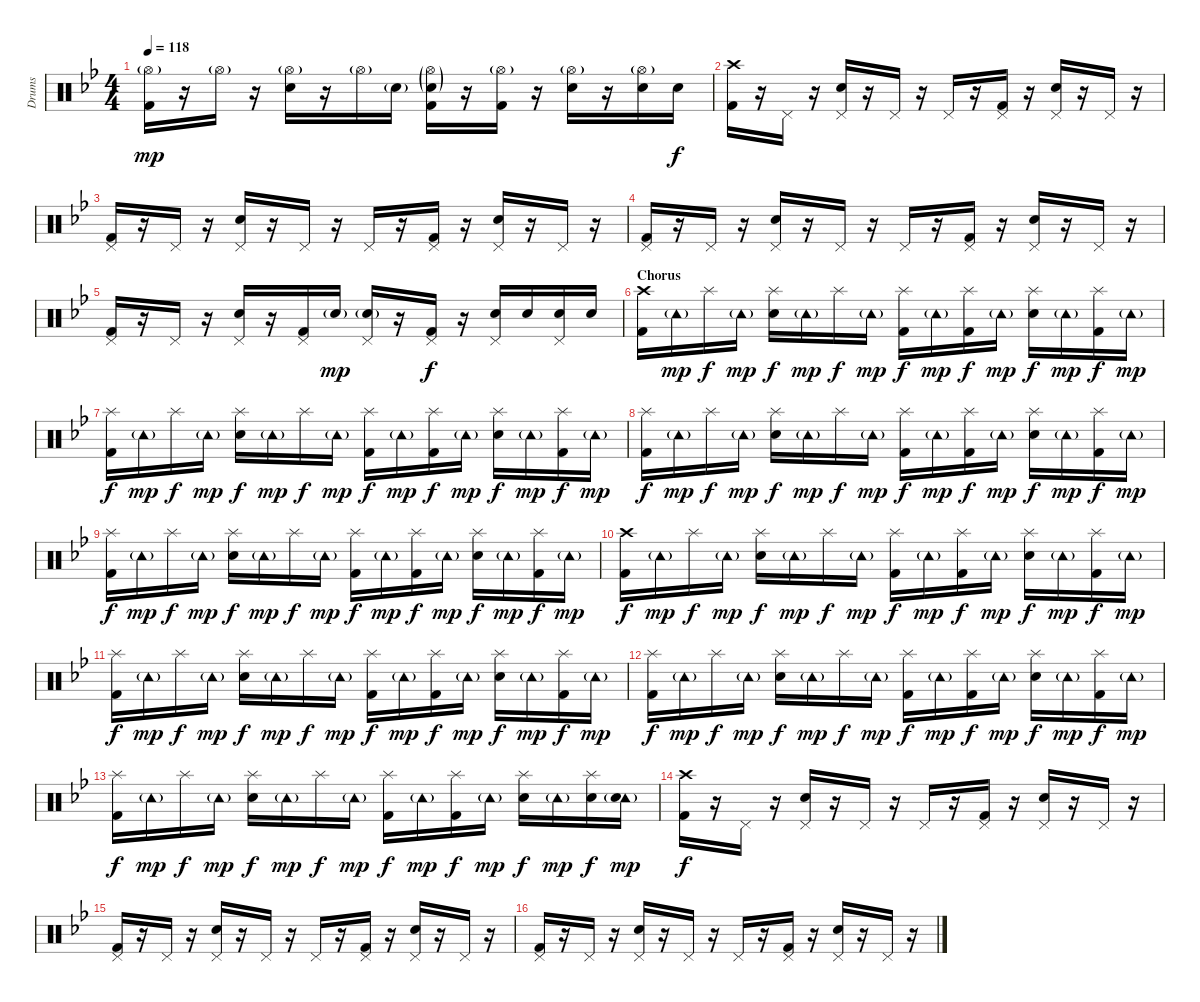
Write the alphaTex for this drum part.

\track ("Drums" "Drums") {instrument percussion}
\staff {score}
\articulation defaults
\ts (4 4)
\tempo 118
\clef neutral
\ks bb
("Hi-Hat (open)"{g} "Kick (hit) 2").16{dy mp} r.16 "Hi-Hat (open)"{g}.16 r.16 ("Hi-Hat (open)"{g} "Electric Snare (hit)").16 r.16 "Hi-Hat (open)"{g}.16 "Electric Snare (hit)"{g}.16 ("Hi-Hat (open)"{g} "Electric Snare (hit)"{g} "Kick (hit) 2").16 r.16 ("Hi-Hat (open)"{g} "Kick (hit) 2").16 r.16 ("Hi-Hat (open)"{g} "Electric Snare (hit)").16 r.16 ("Hi-Hat (open)"{g} "Electric Snare (hit)").16 "Electric Snare (hit)".16{dy f} |
("Crash high (hit)" "Kick (hit) 2").16 r.16 "Pedal Hi-Hat (hit)".16 r.16 ("Pedal Hi-Hat (hit)" "Electric Snare (hit)").16 r.16 "Pedal Hi-Hat (hit)".16 r.16 "Pedal Hi-Hat (hit)".16 r.16 ("Pedal Hi-Hat (hit)" "Kick (hit) 2").16 r.16 ("Pedal Hi-Hat (hit)" "Electric Snare (hit)").16 r.16 "Pedal Hi-Hat (hit)".16 r.16 |
("Pedal Hi-Hat (hit)" "Kick (hit) 2").16 r.16 "Pedal Hi-Hat (hit)".16 r.16 ("Pedal Hi-Hat (hit)" "Electric Snare (hit)").16 r.16 "Pedal Hi-Hat (hit)".16 r.16 "Pedal Hi-Hat (hit)".16 r.16 ("Pedal Hi-Hat (hit)" "Kick (hit) 2").16 r.16 ("Pedal Hi-Hat (hit)" "Electric Snare (hit)").16 r.16 "Pedal Hi-Hat (hit)".16 r.16 |
("Pedal Hi-Hat (hit)" "Kick (hit) 2").16 r.16 "Pedal Hi-Hat (hit)".16 r.16 ("Pedal Hi-Hat (hit)" "Electric Snare (hit)").16 r.16 "Pedal Hi-Hat (hit)".16 r.16 "Pedal Hi-Hat (hit)".16 r.16 ("Pedal Hi-Hat (hit)" "Kick (hit) 2").16 r.16 ("Pedal Hi-Hat (hit)" "Electric Snare (hit)").16 r.16 "Pedal Hi-Hat (hit)".16 r.16 |
("Pedal Hi-Hat (hit)" "Kick (hit) 2").16 r.16 "Pedal Hi-Hat (hit)".16 r.16 ("Pedal Hi-Hat (hit)" "Electric Snare (hit)").16 r.16 ("Pedal Hi-Hat (hit)" "Kick (hit) 2").16 "Electric Snare (hit)"{g}.16{dy mp} ("Pedal Hi-Hat (hit)" "Electric Snare (hit)"{g}).16 r.16 ("Pedal Hi-Hat (hit)" "Kick (hit) 2").16{dy f} r.16 ("Pedal Hi-Hat (hit)" "Electric Snare (hit)").16 "Electric Snare (hit)".16 ("Pedal Hi-Hat (hit)" "Electric Snare (hit)").16 "Electric Snare (hit)".16 |
\section ("" "Chorus")
("Crash high (hit)" "Kick (hit) 2").16 "Tambourine (hit)"{g}.16{dy mp} "Splash (hit)".16{dy f} "Tambourine (hit)"{g}.16{dy mp} ("Splash (hit)" "Electric Snare (hit)").16{dy f} "Tambourine (hit)"{g}.16{dy mp} "Splash (hit)".16{dy f} "Tambourine (hit)"{g}.16{dy mp} ("Splash (hit)" "Kick (hit) 2").16{dy f} "Tambourine (hit)"{g}.16{dy mp} ("Splash (hit)" "Kick (hit) 2").16{dy f} "Tambourine (hit)"{g}.16{dy mp} ("Splash (hit)" "Electric Snare (hit)").16{dy f} "Tambourine (hit)"{g}.16{dy mp} ("Splash (hit)" "Kick (hit) 2").16{dy f} "Tambourine (hit)"{g}.16{dy mp} |
("Splash (hit)" "Kick (hit) 2").16{dy f} "Tambourine (hit)"{g}.16{dy mp} "Splash (hit)".16{dy f} "Tambourine (hit)"{g}.16{dy mp} ("Splash (hit)" "Electric Snare (hit)").16{dy f} "Tambourine (hit)"{g}.16{dy mp} "Splash (hit)".16{dy f} "Tambourine (hit)"{g}.16{dy mp} ("Splash (hit)" "Kick (hit) 2").16{dy f} "Tambourine (hit)"{g}.16{dy mp} ("Splash (hit)" "Kick (hit) 2").16{dy f} "Tambourine (hit)"{g}.16{dy mp} ("Splash (hit)" "Electric Snare (hit)").16{dy f} "Tambourine (hit)"{g}.16{dy mp} ("Splash (hit)" "Kick (hit) 2").16{dy f} "Tambourine (hit)"{g}.16{dy mp} |
("Splash (hit)" "Kick (hit) 2").16{dy f} "Tambourine (hit)"{g}.16{dy mp} "Splash (hit)".16{dy f} "Tambourine (hit)"{g}.16{dy mp} ("Splash (hit)" "Electric Snare (hit)").16{dy f} "Tambourine (hit)"{g}.16{dy mp} "Splash (hit)".16{dy f} "Tambourine (hit)"{g}.16{dy mp} ("Splash (hit)" "Kick (hit) 2").16{dy f} "Tambourine (hit)"{g}.16{dy mp} ("Splash (hit)" "Kick (hit) 2").16{dy f} "Tambourine (hit)"{g}.16{dy mp} ("Splash (hit)" "Electric Snare (hit)").16{dy f} "Tambourine (hit)"{g}.16{dy mp} ("Splash (hit)" "Kick (hit) 2").16{dy f} "Tambourine (hit)"{g}.16{dy mp} |
("Splash (hit)" "Kick (hit) 2").16{dy f} "Tambourine (hit)"{g}.16{dy mp} "Splash (hit)".16{dy f} "Tambourine (hit)"{g}.16{dy mp} ("Splash (hit)" "Electric Snare (hit)").16{dy f} "Tambourine (hit)"{g}.16{dy mp} "Splash (hit)".16{dy f} "Tambourine (hit)"{g}.16{dy mp} ("Splash (hit)" "Kick (hit) 2").16{dy f} "Tambourine (hit)"{g}.16{dy mp} ("Splash (hit)" "Kick (hit) 2").16{dy f} "Tambourine (hit)"{g}.16{dy mp} ("Splash (hit)" "Electric Snare (hit)").16{dy f} "Tambourine (hit)"{g}.16{dy mp} ("Splash (hit)" "Kick (hit) 2").16{dy f} "Tambourine (hit)"{g}.16{dy mp} |
("Crash high (hit)" "Kick (hit) 2").16{dy f} "Tambourine (hit)"{g}.16{dy mp} "Splash (hit)".16{dy f} "Tambourine (hit)"{g}.16{dy mp} ("Splash (hit)" "Electric Snare (hit)").16{dy f} "Tambourine (hit)"{g}.16{dy mp} "Splash (hit)".16{dy f} "Tambourine (hit)"{g}.16{dy mp} ("Splash (hit)" "Kick (hit) 2").16{dy f} "Tambourine (hit)"{g}.16{dy mp} ("Splash (hit)" "Kick (hit) 2").16{dy f} "Tambourine (hit)"{g}.16{dy mp} ("Splash (hit)" "Electric Snare (hit)").16{dy f} "Tambourine (hit)"{g}.16{dy mp} ("Splash (hit)" "Kick (hit) 2").16{dy f} "Tambourine (hit)"{g}.16{dy mp} |
("Splash (hit)" "Kick (hit) 2").16{dy f} "Tambourine (hit)"{g}.16{dy mp} "Splash (hit)".16{dy f} "Tambourine (hit)"{g}.16{dy mp} ("Splash (hit)" "Electric Snare (hit)").16{dy f} "Tambourine (hit)"{g}.16{dy mp} "Splash (hit)".16{dy f} "Tambourine (hit)"{g}.16{dy mp} ("Splash (hit)" "Kick (hit) 2").16{dy f} "Tambourine (hit)"{g}.16{dy mp} ("Splash (hit)" "Kick (hit) 2").16{dy f} "Tambourine (hit)"{g}.16{dy mp} ("Splash (hit)" "Electric Snare (hit)").16{dy f} "Tambourine (hit)"{g}.16{dy mp} ("Splash (hit)" "Kick (hit) 2").16{dy f} "Tambourine (hit)"{g}.16{dy mp} |
("Splash (hit)" "Kick (hit) 2").16{dy f} "Tambourine (hit)"{g}.16{dy mp} "Splash (hit)".16{dy f} "Tambourine (hit)"{g}.16{dy mp} ("Splash (hit)" "Electric Snare (hit)").16{dy f} "Tambourine (hit)"{g}.16{dy mp} "Splash (hit)".16{dy f} "Tambourine (hit)"{g}.16{dy mp} ("Splash (hit)" "Kick (hit) 2").16{dy f} "Tambourine (hit)"{g}.16{dy mp} ("Splash (hit)" "Kick (hit) 2").16{dy f} "Tambourine (hit)"{g}.16{dy mp} ("Splash (hit)" "Electric Snare (hit)").16{dy f} "Tambourine (hit)"{g}.16{dy mp} ("Splash (hit)" "Kick (hit) 2").16{dy f} "Tambourine (hit)"{g}.16{dy mp} |
("Splash (hit)" "Kick (hit) 2").16{dy f} "Tambourine (hit)"{g}.16{dy mp} "Splash (hit)".16{dy f} "Tambourine (hit)"{g}.16{dy mp} ("Splash (hit)" "Electric Snare (hit)").16{dy f} "Tambourine (hit)"{g}.16{dy mp} "Splash (hit)".16{dy f} "Tambourine (hit)"{g}.16{dy mp} ("Splash (hit)" "Kick (hit) 2").16{dy f} "Tambourine (hit)"{g}.16{dy mp} ("Splash (hit)" "Kick (hit) 2").16{dy f} "Tambourine (hit)"{g}.16{dy mp} ("Splash (hit)" "Electric Snare (hit)").16{dy f} "Tambourine (hit)"{g}.16{dy mp} ("Splash (hit)" "Electric Snare (hit)").16{dy f} ("Tambourine (hit)"{g} "Electric Snare (hit)").16{dy mp} |
("Crash high (hit)" "Kick (hit) 2").16{dy f} r.16 "Pedal Hi-Hat (hit)".16 r.16 ("Pedal Hi-Hat (hit)" "Electric Snare (hit)").16 r.16 "Pedal Hi-Hat (hit)".16 r.16 "Pedal Hi-Hat (hit)".16 r.16 ("Pedal Hi-Hat (hit)" "Kick (hit) 2").16 r.16 ("Pedal Hi-Hat (hit)" "Electric Snare (hit)").16 r.16 "Pedal Hi-Hat (hit)".16 r.16 |
("Pedal Hi-Hat (hit)" "Kick (hit) 2").16 r.16 "Pedal Hi-Hat (hit)".16 r.16 ("Pedal Hi-Hat (hit)" "Electric Snare (hit)").16 r.16 "Pedal Hi-Hat (hit)".16 r.16 "Pedal Hi-Hat (hit)".16 r.16 ("Pedal Hi-Hat (hit)" "Kick (hit) 2").16 r.16 ("Pedal Hi-Hat (hit)" "Electric Snare (hit)").16 r.16 "Pedal Hi-Hat (hit)".16 r.16 |
("Pedal Hi-Hat (hit)" "Kick (hit) 2").16 r.16 "Pedal Hi-Hat (hit)".16 r.16 ("Pedal Hi-Hat (hit)" "Electric Snare (hit)").16 r.16 "Pedal Hi-Hat (hit)".16 r.16 "Pedal Hi-Hat (hit)".16 r.16 ("Pedal Hi-Hat (hit)" "Kick (hit) 2").16 r.16 ("Pedal Hi-Hat (hit)" "Electric Snare (hit)").16 r.16 "Pedal Hi-Hat (hit)".16 r.16
